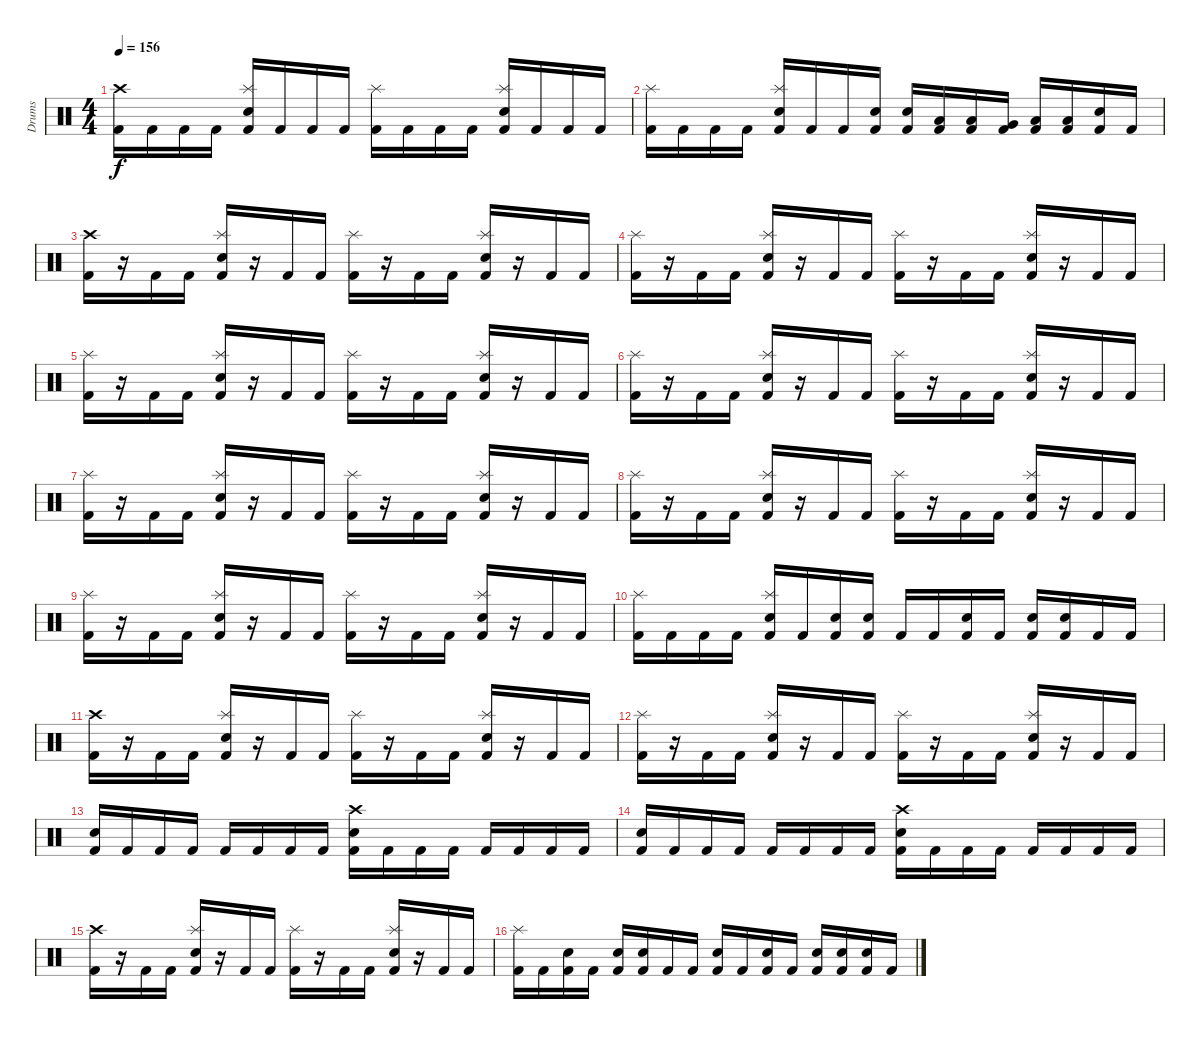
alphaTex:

\track ("Drums" "Drums") {instrument percussion}
\staff {score}
\articulation defaults
\ts (4 4)
\tempo 156
\clef neutral
\ks c
("Crash high (hit)" "Kick (hit) 2").16{dy f} "Kick (hit) 2".16 "Kick (hit) 2".16 "Kick (hit) 2".16 ("Splash (hit)" "Snare (hit) 2" "Kick (hit) 2").16 "Kick (hit) 2".16 "Kick (hit) 2".16 "Kick (hit) 2".16 ("Splash (hit)" "Kick (hit) 2").16 "Kick (hit) 2".16 "Kick (hit) 2".16 "Kick (hit) 2".16 ("Splash (hit)" "Snare (hit) 2" "Kick (hit) 2").16 "Kick (hit) 2".16 "Kick (hit) 2".16 "Kick (hit) 2".16 |
("Splash (hit)" "Kick (hit) 2").16 "Kick (hit) 2".16 "Kick (hit) 2".16 "Kick (hit) 2".16 ("Splash (hit)" "Snare (hit) 2" "Kick (hit) 2").16 "Kick (hit) 2".16 "Kick (hit) 2".16 ("Snare (hit) 2" "Kick (hit) 2").16 ("Snare (hit) 2" "Kick (hit) 2").16 ("Low Tom (hit)" "Kick (hit) 2").16 ("Low Tom (hit)" "Kick (hit) 2").16 ("Very Low Tom (hit)" "Kick (hit) 2").16 ("Low Floor Tom (hit)" "Kick (hit) 2").16 ("Low Floor Tom (hit)" "Kick (hit) 2").16 ("Snare (hit) 2" "Kick (hit) 2").16 "Kick (hit) 2".16 |
\section ("" "")
("Crash high (hit)" "Kick (hit) 2").16 r.16 "Kick (hit) 2".16 "Kick (hit) 2".16 ("Splash (hit)" "Snare (hit) 2" "Kick (hit) 2").16 r.16 "Kick (hit) 2".16 "Kick (hit) 2".16 ("Splash (hit)" "Kick (hit) 2").16 r.16 "Kick (hit) 2".16 "Kick (hit) 2".16 ("Splash (hit)" "Snare (hit) 2" "Kick (hit) 2").16 r.16 "Kick (hit) 2".16 "Kick (hit) 2".16 |
("Splash (hit)" "Kick (hit) 2").16 r.16 "Kick (hit) 2".16 "Kick (hit) 2".16 ("Splash (hit)" "Snare (hit) 2" "Kick (hit) 2").16 r.16 "Kick (hit) 2".16 "Kick (hit) 2".16 ("Splash (hit)" "Kick (hit) 2").16 r.16 "Kick (hit) 2".16 "Kick (hit) 2".16 ("Splash (hit)" "Snare (hit) 2" "Kick (hit) 2").16 r.16 "Kick (hit) 2".16 "Kick (hit) 2".16 |
("Splash (hit)" "Kick (hit) 2").16 r.16 "Kick (hit) 2".16 "Kick (hit) 2".16 ("Splash (hit)" "Snare (hit) 2" "Kick (hit) 2").16 r.16 "Kick (hit) 2".16 "Kick (hit) 2".16 ("Splash (hit)" "Kick (hit) 2").16 r.16 "Kick (hit) 2".16 "Kick (hit) 2".16 ("Splash (hit)" "Snare (hit) 2" "Kick (hit) 2").16 r.16 "Kick (hit) 2".16 "Kick (hit) 2".16 |
("Splash (hit)" "Kick (hit) 2").16 r.16 "Kick (hit) 2".16 "Kick (hit) 2".16 ("Splash (hit)" "Snare (hit) 2" "Kick (hit) 2").16 r.16 "Kick (hit) 2".16 "Kick (hit) 2".16 ("Splash (hit)" "Kick (hit) 2").16 r.16 "Kick (hit) 2".16 "Kick (hit) 2".16 ("Splash (hit)" "Snare (hit) 2" "Kick (hit) 2").16 r.16 "Kick (hit) 2".16 "Kick (hit) 2".16 |
("Splash (hit)" "Kick (hit) 2").16 r.16 "Kick (hit) 2".16 "Kick (hit) 2".16 ("Splash (hit)" "Snare (hit) 2" "Kick (hit) 2").16 r.16 "Kick (hit) 2".16 "Kick (hit) 2".16 ("Splash (hit)" "Kick (hit) 2").16 r.16 "Kick (hit) 2".16 "Kick (hit) 2".16 ("Splash (hit)" "Snare (hit) 2" "Kick (hit) 2").16 r.16 "Kick (hit) 2".16 "Kick (hit) 2".16 |
("Splash (hit)" "Kick (hit) 2").16 r.16 "Kick (hit) 2".16 "Kick (hit) 2".16 ("Splash (hit)" "Snare (hit) 2" "Kick (hit) 2").16 r.16 "Kick (hit) 2".16 "Kick (hit) 2".16 ("Splash (hit)" "Kick (hit) 2").16 r.16 "Kick (hit) 2".16 "Kick (hit) 2".16 ("Splash (hit)" "Snare (hit) 2" "Kick (hit) 2").16 r.16 "Kick (hit) 2".16 "Kick (hit) 2".16 |
("Splash (hit)" "Kick (hit) 2").16 r.16 "Kick (hit) 2".16 "Kick (hit) 2".16 ("Splash (hit)" "Snare (hit) 2" "Kick (hit) 2").16 r.16 "Kick (hit) 2".16 "Kick (hit) 2".16 ("Splash (hit)" "Kick (hit) 2").16 r.16 "Kick (hit) 2".16 "Kick (hit) 2".16 ("Splash (hit)" "Snare (hit) 2" "Kick (hit) 2").16 r.16 "Kick (hit) 2".16 "Kick (hit) 2".16 |
("Splash (hit)" "Kick (hit) 2").16 "Kick (hit) 2".16 "Kick (hit) 2".16 "Kick (hit) 2".16 ("Splash (hit)" "Snare (hit) 2" "Kick (hit) 2").16 "Kick (hit) 2".16 ("Snare (hit) 2" "Kick (hit) 2").16 ("Snare (hit) 2" "Kick (hit) 2").16 "Kick (hit) 2".16 "Kick (hit) 2".16 ("Snare (hit) 2" "Kick (hit) 2").16 "Kick (hit) 2".16 ("Snare (hit) 2" "Kick (hit) 2").16 ("Snare (hit) 2" "Kick (hit) 2").16 "Kick (hit) 2".16 "Kick (hit) 2".16 |
("Crash high (hit)" "Kick (hit) 2").16 r.16 "Kick (hit) 2".16 "Kick (hit) 2".16 ("Splash (hit)" "Snare (hit) 2" "Kick (hit) 2").16 r.16 "Kick (hit) 2".16 "Kick (hit) 2".16 ("Splash (hit)" "Kick (hit) 2").16 r.16 "Kick (hit) 2".16 "Kick (hit) 2".16 ("Splash (hit)" "Snare (hit) 2" "Kick (hit) 2").16 r.16 "Kick (hit) 2".16 "Kick (hit) 2".16 |
("Splash (hit)" "Kick (hit) 2").16 r.16 "Kick (hit) 2".16 "Kick (hit) 2".16 ("Splash (hit)" "Snare (hit) 2" "Kick (hit) 2").16 r.16 "Kick (hit) 2".16 "Kick (hit) 2".16 ("Splash (hit)" "Kick (hit) 2").16 r.16 "Kick (hit) 2".16 "Kick (hit) 2".16 ("Splash (hit)" "Snare (hit) 2" "Kick (hit) 2").16 r.16 "Kick (hit) 2".16 "Kick (hit) 2".16 |
("Snare (hit) 2" "Kick (hit) 2").16 "Kick (hit) 2".16 "Kick (hit) 2".16 "Kick (hit) 2".16 "Kick (hit) 2".16 "Kick (hit) 2".16 "Kick (hit) 2".16 "Kick (hit) 2".16 ("Crash high (hit)" "Snare (hit) 2" "Kick (hit) 2").16 "Kick (hit) 2".16 "Kick (hit) 2".16 "Kick (hit) 2".16 "Kick (hit) 2".16 "Kick (hit) 2".16 "Kick (hit) 2".16 "Kick (hit) 2".16 |
("Snare (hit) 2" "Kick (hit) 2").16 "Kick (hit) 2".16 "Kick (hit) 2".16 "Kick (hit) 2".16 "Kick (hit) 2".16 "Kick (hit) 2".16 "Kick (hit) 2".16 "Kick (hit) 2".16 ("Crash high (hit)" "Snare (hit) 2" "Kick (hit) 2").16 "Kick (hit) 2".16 "Kick (hit) 2".16 "Kick (hit) 2".16 "Kick (hit) 2".16 "Kick (hit) 2".16 "Kick (hit) 2".16 "Kick (hit) 2".16 |
("Crash high (hit)" "Kick (hit) 2").16 r.16 "Kick (hit) 2".16 "Kick (hit) 2".16 ("Splash (hit)" "Snare (hit) 2" "Kick (hit) 2").16 r.16 "Kick (hit) 2".16 "Kick (hit) 2".16 ("Splash (hit)" "Kick (hit) 2").16 r.16 "Kick (hit) 2".16 "Kick (hit) 2".16 ("Splash (hit)" "Snare (hit) 2" "Kick (hit) 2").16 r.16 "Kick (hit) 2".16 "Kick (hit) 2".16 |
("Splash (hit)" "Kick (hit) 2").16 "Kick (hit) 2".16 ("Snare (hit) 2" "Kick (hit) 2").16 "Kick (hit) 2".16 ("Snare (hit) 2" "Kick (hit) 2").16 ("Snare (hit) 2" "Kick (hit) 2").16 "Kick (hit) 2".16 "Kick (hit) 2".16 ("Snare (hit) 2" "Kick (hit) 2").16 "Kick (hit) 2".16 ("Snare (hit) 2" "Kick (hit) 2").16 "Kick (hit) 2".16 ("Snare (hit) 2" "Kick (hit) 2").16 ("Snare (hit) 2" "Kick (hit) 2").16 ("Snare (hit) 2" "Kick (hit) 2").16 "Kick (hit) 2".16
